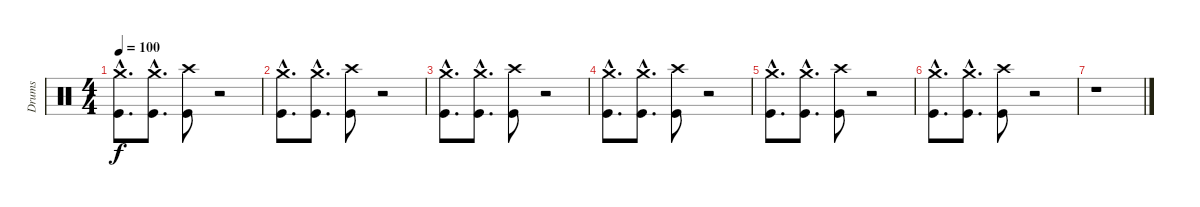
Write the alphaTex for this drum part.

\track ("Drums" "Drums") {instrument percussion}
\staff {score}
\articulation defaults
\ts (4 4)
\tempo 100
\clef neutral
\ks c
("Crash medium (hit)"{hac} "Kick (hit)"{hac}).8{d dy f} ("Crash medium (hit)"{hac} "Kick (hit)"{hac}).8{d} ("Crash high (hit)" "Kick (hit)").8 r.2 |
("Crash medium (hit)"{hac} "Kick (hit)"{hac}).8{d} ("Crash medium (hit)"{hac} "Kick (hit)"{hac}).8{d} ("Crash high (hit)" "Kick (hit)").8 r.2 |
("Crash medium (hit)"{hac} "Kick (hit)"{hac}).8{d} ("Crash medium (hit)"{hac} "Kick (hit)"{hac}).8{d} ("Crash high (hit)" "Kick (hit)").8 r.2 |
("Crash medium (hit)"{hac} "Kick (hit)"{hac}).8{d} ("Crash medium (hit)"{hac} "Kick (hit)"{hac}).8{d} ("Crash high (hit)" "Kick (hit)").8 r.2 |
("Crash medium (hit)"{hac} "Kick (hit)"{hac}).8{d} ("Crash medium (hit)"{hac} "Kick (hit)"{hac}).8{d} ("Crash high (hit)" "Kick (hit)").8 r.2 |
("Crash medium (hit)"{hac} "Kick (hit)"{hac}).8{d} ("Crash medium (hit)"{hac} "Kick (hit)"{hac}).8{d} ("Crash high (hit)" "Kick (hit)").8 r.2 |
r.1
